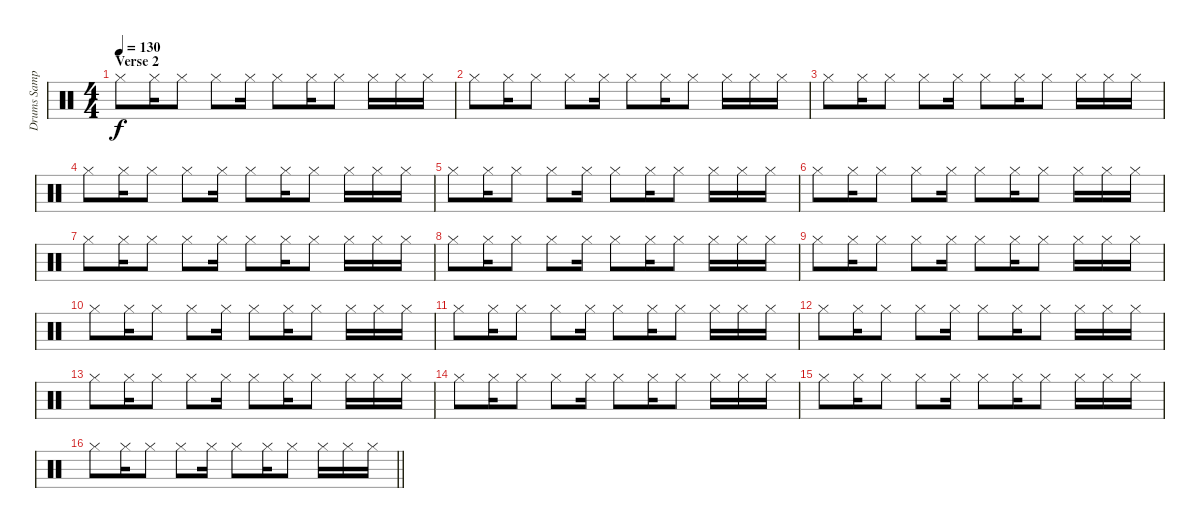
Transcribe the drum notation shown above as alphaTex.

\track ("Drums Sample" "Drums Samp") {instrument percussion}
\staff {score}
\articulation defaults
\ts (4 4)
\section ("" "Verse 2")
\tempo 130
\clef neutral
\ks c "Hi-Hat (closed)".8{dy f} "Hi-Hat (closed)".16 "Hi-Hat (closed)".8 "Hi-Hat (closed)".8 "Hi-Hat (closed)".16 "Hi-Hat (closed)".8 "Hi-Hat (closed)".16 "Hi-Hat (closed)".8 "Hi-Hat (closed)".16 "Hi-Hat (closed)".16 "Hi-Hat (closed)".16
|
"Hi-Hat (closed)".8 "Hi-Hat (closed)".16 "Hi-Hat (closed)".8 "Hi-Hat (closed)".8 "Hi-Hat (closed)".16 "Hi-Hat (closed)".8 "Hi-Hat (closed)".16 "Hi-Hat (closed)".8 "Hi-Hat (closed)".16 "Hi-Hat (closed)".16 "Hi-Hat (closed)".16 |
"Hi-Hat (closed)".8 "Hi-Hat (closed)".16 "Hi-Hat (closed)".8 "Hi-Hat (closed)".8 "Hi-Hat (closed)".16 "Hi-Hat (closed)".8 "Hi-Hat (closed)".16 "Hi-Hat (closed)".8 "Hi-Hat (closed)".16 "Hi-Hat (closed)".16 "Hi-Hat (closed)".16 |
"Hi-Hat (closed)".8 "Hi-Hat (closed)".16 "Hi-Hat (closed)".8 "Hi-Hat (closed)".8 "Hi-Hat (closed)".16 "Hi-Hat (closed)".8 "Hi-Hat (closed)".16 "Hi-Hat (closed)".8 "Hi-Hat (closed)".16 "Hi-Hat (closed)".16 "Hi-Hat (closed)".16 |
"Hi-Hat (closed)".8 "Hi-Hat (closed)".16 "Hi-Hat (closed)".8 "Hi-Hat (closed)".8 "Hi-Hat (closed)".16 "Hi-Hat (closed)".8 "Hi-Hat (closed)".16 "Hi-Hat (closed)".8 "Hi-Hat (closed)".16 "Hi-Hat (closed)".16 "Hi-Hat (closed)".16 |
"Hi-Hat (closed)".8 "Hi-Hat (closed)".16 "Hi-Hat (closed)".8 "Hi-Hat (closed)".8 "Hi-Hat (closed)".16 "Hi-Hat (closed)".8 "Hi-Hat (closed)".16 "Hi-Hat (closed)".8 "Hi-Hat (closed)".16 "Hi-Hat (closed)".16 "Hi-Hat (closed)".16 |
"Hi-Hat (closed)".8 "Hi-Hat (closed)".16 "Hi-Hat (closed)".8 "Hi-Hat (closed)".8 "Hi-Hat (closed)".16 "Hi-Hat (closed)".8 "Hi-Hat (closed)".16 "Hi-Hat (closed)".8 "Hi-Hat (closed)".16 "Hi-Hat (closed)".16 "Hi-Hat (closed)".16 |
"Hi-Hat (closed)".8 "Hi-Hat (closed)".16 "Hi-Hat (closed)".8 "Hi-Hat (closed)".8 "Hi-Hat (closed)".16 "Hi-Hat (closed)".8 "Hi-Hat (closed)".16 "Hi-Hat (closed)".8 "Hi-Hat (closed)".16 "Hi-Hat (closed)".16 "Hi-Hat (closed)".16 |
"Hi-Hat (closed)".8 "Hi-Hat (closed)".16 "Hi-Hat (closed)".8 "Hi-Hat (closed)".8 "Hi-Hat (closed)".16 "Hi-Hat (closed)".8 "Hi-Hat (closed)".16 "Hi-Hat (closed)".8 "Hi-Hat (closed)".16 "Hi-Hat (closed)".16 "Hi-Hat (closed)".16 |
"Hi-Hat (closed)".8 "Hi-Hat (closed)".16 "Hi-Hat (closed)".8 "Hi-Hat (closed)".8 "Hi-Hat (closed)".16 "Hi-Hat (closed)".8 "Hi-Hat (closed)".16 "Hi-Hat (closed)".8 "Hi-Hat (closed)".16 "Hi-Hat (closed)".16 "Hi-Hat (closed)".16 |
"Hi-Hat (closed)".8 "Hi-Hat (closed)".16 "Hi-Hat (closed)".8 "Hi-Hat (closed)".8 "Hi-Hat (closed)".16 "Hi-Hat (closed)".8 "Hi-Hat (closed)".16 "Hi-Hat (closed)".8 "Hi-Hat (closed)".16 "Hi-Hat (closed)".16 "Hi-Hat (closed)".16 |
"Hi-Hat (closed)".8 "Hi-Hat (closed)".16 "Hi-Hat (closed)".8 "Hi-Hat (closed)".8 "Hi-Hat (closed)".16 "Hi-Hat (closed)".8 "Hi-Hat (closed)".16 "Hi-Hat (closed)".8 "Hi-Hat (closed)".16 "Hi-Hat (closed)".16 "Hi-Hat (closed)".16 |
"Hi-Hat (closed)".8 "Hi-Hat (closed)".16 "Hi-Hat (closed)".8 "Hi-Hat (closed)".8 "Hi-Hat (closed)".16 "Hi-Hat (closed)".8 "Hi-Hat (closed)".16 "Hi-Hat (closed)".8 "Hi-Hat (closed)".16 "Hi-Hat (closed)".16 "Hi-Hat (closed)".16 |
"Hi-Hat (closed)".8 "Hi-Hat (closed)".16 "Hi-Hat (closed)".8 "Hi-Hat (closed)".8 "Hi-Hat (closed)".16 "Hi-Hat (closed)".8 "Hi-Hat (closed)".16 "Hi-Hat (closed)".8 "Hi-Hat (closed)".16 "Hi-Hat (closed)".16 "Hi-Hat (closed)".16 |
"Hi-Hat (closed)".8 "Hi-Hat (closed)".16 "Hi-Hat (closed)".8 "Hi-Hat (closed)".8 "Hi-Hat (closed)".16 "Hi-Hat (closed)".8 "Hi-Hat (closed)".16 "Hi-Hat (closed)".8 "Hi-Hat (closed)".16 "Hi-Hat (closed)".16 "Hi-Hat (closed)".16 |
\barLineRight lightlight "Hi-Hat (closed)".8 "Hi-Hat (closed)".16 "Hi-Hat (closed)".8 "Hi-Hat (closed)".8 "Hi-Hat (closed)".16 "Hi-Hat (closed)".8 "Hi-Hat (closed)".16 "Hi-Hat (closed)".8 "Hi-Hat (closed)".16 "Hi-Hat (closed)".16 "Hi-Hat (closed)".16
